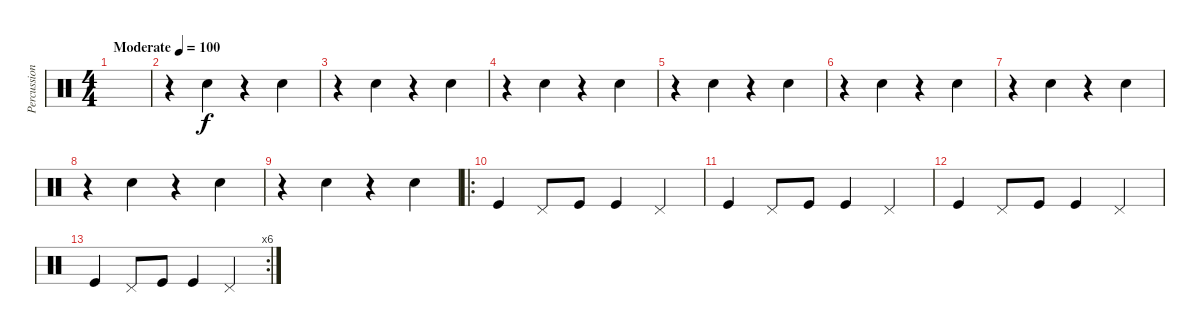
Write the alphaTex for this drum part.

\track ("Percussion" "Percussion") {instrument percussion}
\staff {score}
\articulation defaults
\ts (4 4)
\tempo (100 "Moderate")
\clef neutral
\ks c
|
r.4 "Hand Clap (hit)".4 r.4 "Hand Clap (hit)".4 |
r.4 "Hand Clap (hit)".4 r.4 "Hand Clap (hit)".4 |
r.4 "Hand Clap (hit)".4 r.4 "Hand Clap (hit)".4 |
r.4 "Hand Clap (hit)".4 r.4 "Hand Clap (hit)".4 |
r.4 "Hand Clap (hit)".4 r.4 "Hand Clap (hit)".4 |
r.4 "Hand Clap (hit)".4 r.4 "Hand Clap (hit)".4 |
r.4 "Hand Clap (hit)".4 r.4 "Hand Clap (hit)".4 |
r.4 "Hand Clap (hit)".4 r.4 "Hand Clap (hit)".4 |
\ro "Kick (hit)".4 "Pedal Hi-Hat (hit)".8 "Kick (hit)".8 "Kick (hit)".4 "Pedal Hi-Hat (hit)".4
|
"Kick (hit)".4 "Pedal Hi-Hat (hit)".8 "Kick (hit)".8 "Kick (hit)".4 "Pedal Hi-Hat (hit)".4 |
"Kick (hit)".4 "Pedal Hi-Hat (hit)".8 "Kick (hit)".8 "Kick (hit)".4 "Pedal Hi-Hat (hit)".4 |
\rc 6 "Kick (hit)".4 "Pedal Hi-Hat (hit)".8 "Kick (hit)".8 "Kick (hit)".4 "Pedal Hi-Hat (hit)".4
